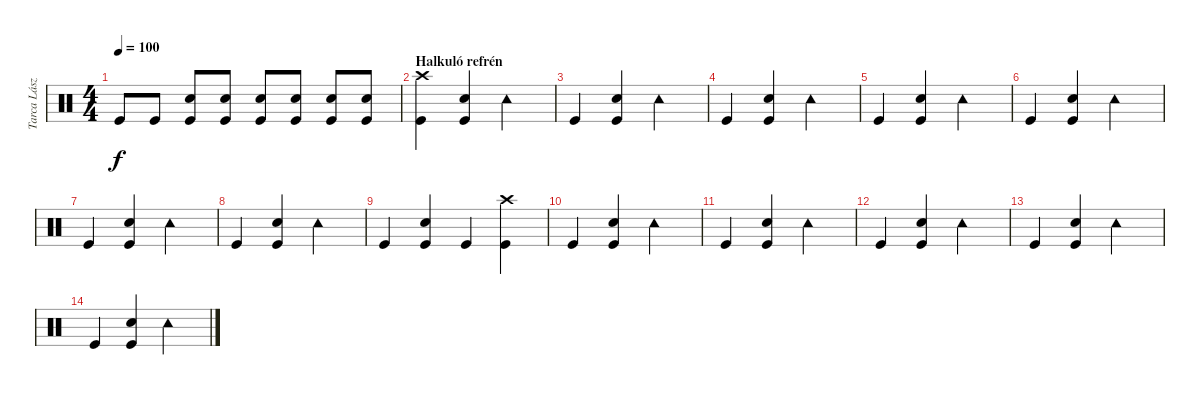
\track ("Tarca László" "Tarca Lász") {instrument percussion}
\staff {score}
\articulation defaults
\ts (4 4)
\tempo 100
\clef neutral
\ks c "Kick (hit)".8{dy f} "Kick (hit)".8
("Snare (hit) 2" "Kick (hit)").8 ("Snare (hit) 2" "Kick (hit)").8 ("Snare (hit) 2" "Kick (hit)").8 ("Snare (hit) 2" "Kick (hit)").8 ("Snare (hit) 2" "Kick (hit)").8 ("Snare (hit) 2" "Kick (hit)").8 |
\section ("" "Halkuló refrén")
("Crash high (hit)" "Kick (hit)").4 ("Snare (hit) 2" "Kick (hit)").4 "Tambourine (hit)".2 |
"Kick (hit)".4 ("Snare (hit) 2" "Kick (hit)").4 "Tambourine (hit)".2 |
"Kick (hit)".4 ("Snare (hit) 2" "Kick (hit)").4 "Tambourine (hit)".2 |
"Kick (hit)".4 ("Snare (hit) 2" "Kick (hit)").4 "Tambourine (hit)".2 |
"Kick (hit)".4 ("Snare (hit) 2" "Kick (hit)").4 "Tambourine (hit)".2 |
"Kick (hit)".4 ("Snare (hit) 2" "Kick (hit)").4 "Tambourine (hit)".2 |
"Kick (hit)".4 ("Snare (hit) 2" "Kick (hit)").4 "Tambourine (hit)".2 |
"Kick (hit)".4 ("Snare (hit) 2" "Kick (hit)").4 "Kick (hit)".4 ("Crash high (hit)" "Kick (hit)").4 |
"Kick (hit)".4 ("Snare (hit) 2" "Kick (hit)").4 "Tambourine (hit)".2 |
"Kick (hit)".4 ("Snare (hit) 2" "Kick (hit)").4 "Tambourine (hit)".2 |
"Kick (hit)".4 ("Snare (hit) 2" "Kick (hit)").4 "Tambourine (hit)".2 |
"Kick (hit)".4 ("Snare (hit) 2" "Kick (hit)").4 "Tambourine (hit)".2 |
"Kick (hit)".4 ("Snare (hit) 2" "Kick (hit)").4 "Tambourine (hit)".2
